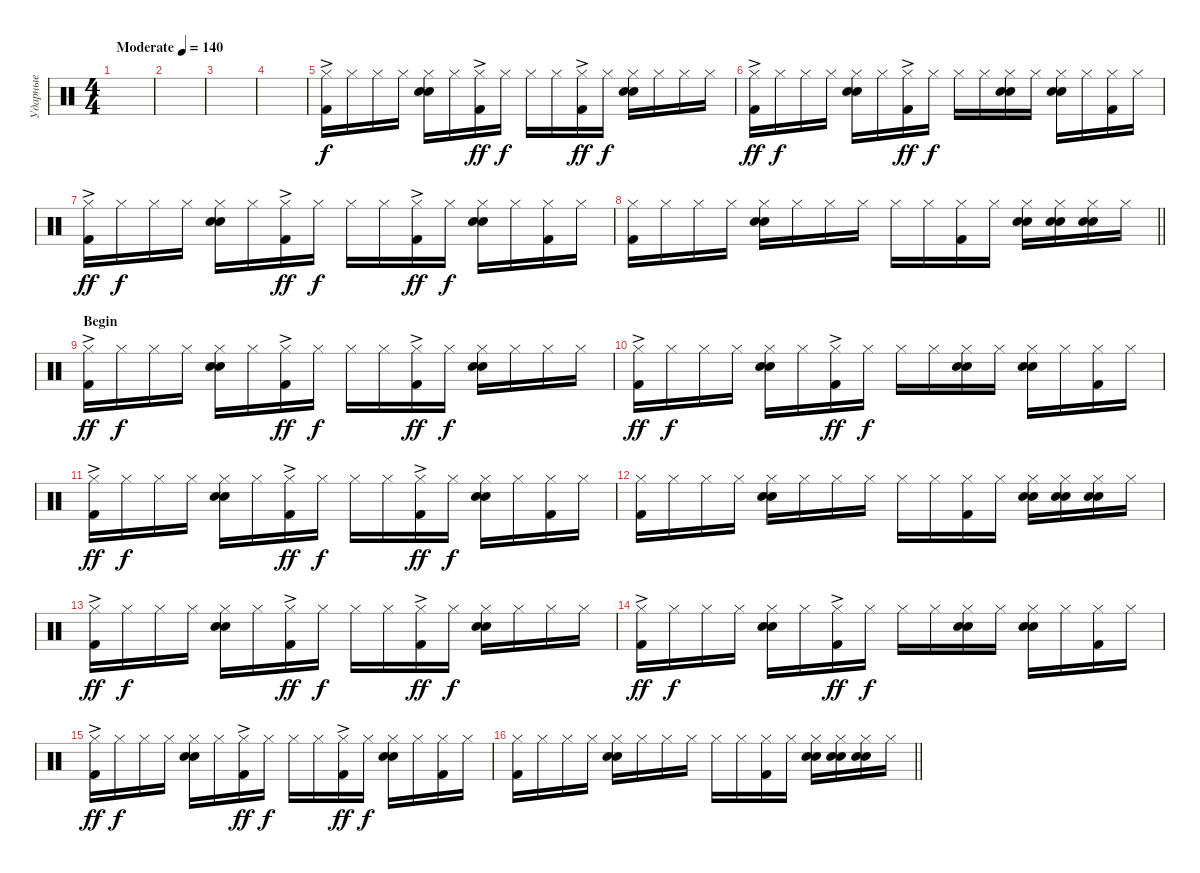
\track ("Ударные" "Ударные") {instrument percussion}
\staff {score}
\articulation defaults
\ts (4 4)
\tempo (140 "Moderate")
\clef neutral
\ks c
|
|
|
|
("Kick (hit) 2"{ac} "Hi-Hat (closed)").16 "Hi-Hat (closed)".16{dy f} "Hi-Hat (closed)".16 "Hi-Hat (closed)".16 ("Snare (hit) 2" "Hand Clap (hit)" "Hi-Hat (closed)").16 "Hi-Hat (closed)".16 ("Kick (hit) 2"{ac} "Hi-Hat (closed)").16{dy ff} "Hi-Hat (closed)".16{dy f} "Hi-Hat (closed)".16 "Hi-Hat (closed)".16 ("Kick (hit) 2"{ac} "Hi-Hat (closed)").16{dy ff} "Hi-Hat (closed)".16{dy f} ("Snare (hit) 2" "Hand Clap (hit)" "Hi-Hat (closed)").16 "Hi-Hat (closed)".16 "Hi-Hat (closed)".16 "Hi-Hat (closed)".16 |
("Kick (hit) 2"{ac} "Hi-Hat (closed)").16{dy ff} "Hi-Hat (closed)".16{dy f} "Hi-Hat (closed)".16 "Hi-Hat (closed)".16 ("Snare (hit) 2" "Hand Clap (hit)" "Hi-Hat (closed)").16 "Hi-Hat (closed)".16 ("Kick (hit) 2"{ac} "Hi-Hat (closed)").16{dy ff} "Hi-Hat (closed)".16{dy f} "Hi-Hat (closed)".16 "Hi-Hat (closed)".16 ("Snare (hit) 2" "Hand Clap (hit)" "Hi-Hat (closed)").16 "Hi-Hat (closed)".16 ("Snare (hit) 2" "Hand Clap (hit)" "Hi-Hat (closed)").16 "Hi-Hat (closed)".16 ("Kick (hit) 2" "Hi-Hat (closed)").16 "Hi-Hat (closed)".16 |
("Kick (hit) 2"{ac} "Hi-Hat (closed)").16{dy ff} "Hi-Hat (closed)".16{dy f} "Hi-Hat (closed)".16 "Hi-Hat (closed)".16 ("Snare (hit) 2" "Hand Clap (hit)" "Hi-Hat (closed)").16 "Hi-Hat (closed)".16 ("Kick (hit) 2"{ac} "Hi-Hat (closed)").16{dy ff} "Hi-Hat (closed)".16{dy f} "Hi-Hat (closed)".16 "Hi-Hat (closed)".16 ("Kick (hit) 2"{ac} "Hi-Hat (closed)").16{dy ff} "Hi-Hat (closed)".16{dy f} ("Snare (hit) 2" "Hand Clap (hit)" "Hi-Hat (closed)").16 "Hi-Hat (closed)".16 ("Kick (hit) 2" "Hi-Hat (closed)").16 "Hi-Hat (closed)".16 |
\barLineRight lightlight
("Kick (hit) 2" "Hi-Hat (closed)").16 "Hi-Hat (closed)".16 "Hi-Hat (closed)".16 "Hi-Hat (closed)".16 ("Snare (hit) 2" "Hand Clap (hit)" "Hi-Hat (closed)").16 "Hi-Hat (closed)".16 "Hi-Hat (closed)".16 "Hi-Hat (closed)".16 "Hi-Hat (closed)".16 "Hi-Hat (closed)".16 ("Kick (hit) 2" "Hi-Hat (closed)").16 "Hi-Hat (closed)".16 ("Snare (hit) 2" "Hand Clap (hit)" "Hi-Hat (closed)").16 ("Snare (hit) 2" "Hand Clap (hit)" "Hi-Hat (closed)").16 ("Snare (hit) 2" "Hand Clap (hit)" "Hi-Hat (closed)").16 "Hi-Hat (closed)".16 |
\section ("" "Begin")
("Kick (hit) 2"{ac} "Hi-Hat (closed)").16{dy ff} "Hi-Hat (closed)".16{dy f} "Hi-Hat (closed)".16 "Hi-Hat (closed)".16 ("Snare (hit) 2" "Hand Clap (hit)" "Hi-Hat (closed)").16 "Hi-Hat (closed)".16 ("Kick (hit) 2"{ac} "Hi-Hat (closed)").16{dy ff} "Hi-Hat (closed)".16{dy f} "Hi-Hat (closed)".16 "Hi-Hat (closed)".16 ("Kick (hit) 2"{ac} "Hi-Hat (closed)").16{dy ff} "Hi-Hat (closed)".16{dy f} ("Snare (hit) 2" "Hand Clap (hit)" "Hi-Hat (closed)").16 "Hi-Hat (closed)".16 "Hi-Hat (closed)".16 "Hi-Hat (closed)".16 |
("Kick (hit) 2"{ac} "Hi-Hat (closed)").16{dy ff} "Hi-Hat (closed)".16{dy f} "Hi-Hat (closed)".16 "Hi-Hat (closed)".16 ("Snare (hit) 2" "Hand Clap (hit)" "Hi-Hat (closed)").16 "Hi-Hat (closed)".16 ("Kick (hit) 2"{ac} "Hi-Hat (closed)").16{dy ff} "Hi-Hat (closed)".16{dy f} "Hi-Hat (closed)".16 "Hi-Hat (closed)".16 ("Snare (hit) 2" "Hand Clap (hit)" "Hi-Hat (closed)").16 "Hi-Hat (closed)".16 ("Snare (hit) 2" "Hand Clap (hit)" "Hi-Hat (closed)").16 "Hi-Hat (closed)".16 ("Kick (hit) 2" "Hi-Hat (closed)").16 "Hi-Hat (closed)".16 |
("Kick (hit) 2"{ac} "Hi-Hat (closed)").16{dy ff} "Hi-Hat (closed)".16{dy f} "Hi-Hat (closed)".16 "Hi-Hat (closed)".16 ("Snare (hit) 2" "Hand Clap (hit)" "Hi-Hat (closed)").16 "Hi-Hat (closed)".16 ("Kick (hit) 2"{ac} "Hi-Hat (closed)").16{dy ff} "Hi-Hat (closed)".16{dy f} "Hi-Hat (closed)".16 "Hi-Hat (closed)".16 ("Kick (hit) 2"{ac} "Hi-Hat (closed)").16{dy ff} "Hi-Hat (closed)".16{dy f} ("Snare (hit) 2" "Hand Clap (hit)" "Hi-Hat (closed)").16 "Hi-Hat (closed)".16 ("Kick (hit) 2" "Hi-Hat (closed)").16 "Hi-Hat (closed)".16 |
("Kick (hit) 2" "Hi-Hat (closed)").16 "Hi-Hat (closed)".16 "Hi-Hat (closed)".16 "Hi-Hat (closed)".16 ("Snare (hit) 2" "Hand Clap (hit)" "Hi-Hat (closed)").16 "Hi-Hat (closed)".16 "Hi-Hat (closed)".16 "Hi-Hat (closed)".16 "Hi-Hat (closed)".16 "Hi-Hat (closed)".16 ("Kick (hit) 2" "Hi-Hat (closed)").16 "Hi-Hat (closed)".16 ("Snare (hit) 2" "Hand Clap (hit)" "Hi-Hat (closed)").16 ("Snare (hit) 2" "Hand Clap (hit)" "Hi-Hat (closed)").16 ("Snare (hit) 2" "Hand Clap (hit)" "Hi-Hat (closed)").16 "Hi-Hat (closed)".16 |
("Kick (hit) 2"{ac} "Hi-Hat (closed)").16{dy ff} "Hi-Hat (closed)".16{dy f} "Hi-Hat (closed)".16 "Hi-Hat (closed)".16 ("Snare (hit) 2" "Hand Clap (hit)" "Hi-Hat (closed)").16 "Hi-Hat (closed)".16 ("Kick (hit) 2"{ac} "Hi-Hat (closed)").16{dy ff} "Hi-Hat (closed)".16{dy f} "Hi-Hat (closed)".16 "Hi-Hat (closed)".16 ("Kick (hit) 2"{ac} "Hi-Hat (closed)").16{dy ff} "Hi-Hat (closed)".16{dy f} ("Snare (hit) 2" "Hand Clap (hit)" "Hi-Hat (closed)").16 "Hi-Hat (closed)".16 "Hi-Hat (closed)".16 "Hi-Hat (closed)".16 |
("Kick (hit) 2"{ac} "Hi-Hat (closed)").16{dy ff} "Hi-Hat (closed)".16{dy f} "Hi-Hat (closed)".16 "Hi-Hat (closed)".16 ("Snare (hit) 2" "Hand Clap (hit)" "Hi-Hat (closed)").16 "Hi-Hat (closed)".16 ("Kick (hit) 2"{ac} "Hi-Hat (closed)").16{dy ff} "Hi-Hat (closed)".16{dy f} "Hi-Hat (closed)".16 "Hi-Hat (closed)".16 ("Snare (hit) 2" "Hand Clap (hit)" "Hi-Hat (closed)").16 "Hi-Hat (closed)".16 ("Snare (hit) 2" "Hand Clap (hit)" "Hi-Hat (closed)").16 "Hi-Hat (closed)".16 ("Kick (hit) 2" "Hi-Hat (closed)").16 "Hi-Hat (closed)".16 |
("Kick (hit) 2"{ac} "Hi-Hat (closed)").16{dy ff} "Hi-Hat (closed)".16{dy f} "Hi-Hat (closed)".16 "Hi-Hat (closed)".16 ("Snare (hit) 2" "Hand Clap (hit)" "Hi-Hat (closed)").16 "Hi-Hat (closed)".16 ("Kick (hit) 2"{ac} "Hi-Hat (closed)").16{dy ff} "Hi-Hat (closed)".16{dy f} "Hi-Hat (closed)".16 "Hi-Hat (closed)".16 ("Kick (hit) 2"{ac} "Hi-Hat (closed)").16{dy ff} "Hi-Hat (closed)".16{dy f} ("Snare (hit) 2" "Hand Clap (hit)" "Hi-Hat (closed)").16 "Hi-Hat (closed)".16 ("Kick (hit) 2" "Hi-Hat (closed)").16 "Hi-Hat (closed)".16 |
\barLineRight lightlight
("Kick (hit) 2" "Hi-Hat (closed)").16 "Hi-Hat (closed)".16 "Hi-Hat (closed)".16 "Hi-Hat (closed)".16 ("Snare (hit) 2" "Hand Clap (hit)" "Hi-Hat (closed)").16 "Hi-Hat (closed)".16 "Hi-Hat (closed)".16 "Hi-Hat (closed)".16 "Hi-Hat (closed)".16 "Hi-Hat (closed)".16 ("Kick (hit) 2" "Hi-Hat (closed)").16 "Hi-Hat (closed)".16 ("Snare (hit) 2" "Hand Clap (hit)" "Hi-Hat (closed)").16 ("Snare (hit) 2" "Hand Clap (hit)" "Hi-Hat (closed)").16 ("Snare (hit) 2" "Hand Clap (hit)" "Hi-Hat (closed)").16 "Hi-Hat (closed)".16
